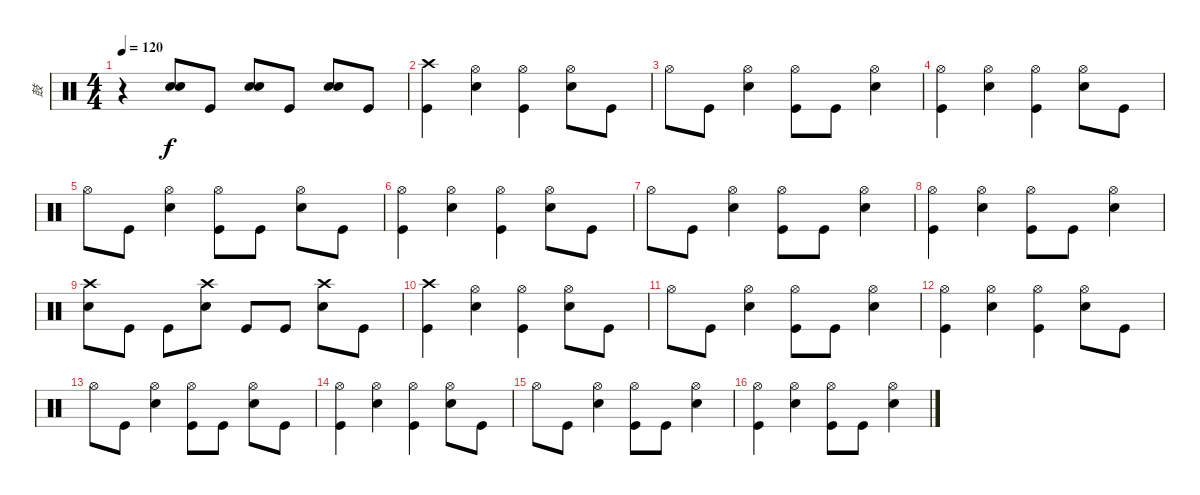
\track ("鼓" "鼓") {instrument percussion}
\staff {score}
\articulation defaults
\ts (4 4)
\tempo 120
\clef neutral
\ks c
r.4{dy f} ("Electric Snare (hit)" "Electric Snare (hit)").8 "Kick (hit)".8 ("Electric Snare (hit)" "Electric Snare (hit)").8 "Kick (hit)".8 ("Electric Snare (hit)" "Electric Snare (hit)").8 "Kick (hit)".8 |
("Crash high (hit)" "Kick (hit)").4 ("Hi-Hat (open)" "Electric Snare (hit)").4 ("Hi-Hat (open)" "Kick (hit)").4 ("Electric Snare (hit)" "Hi-Hat (open)").8 "Kick (hit)".8 |
"Hi-Hat (open)".8 "Kick (hit)".8 ("Hi-Hat (open)" "Electric Snare (hit)").4 ("Hi-Hat (open)" "Kick (hit)").8 "Kick (hit)".8 ("Electric Snare (hit)" "Hi-Hat (open)").4 |
("Hi-Hat (open)" "Kick (hit)").4 ("Hi-Hat (open)" "Electric Snare (hit)").4 ("Hi-Hat (open)" "Kick (hit)").4 ("Electric Snare (hit)" "Hi-Hat (open)").8 "Kick (hit)".8 |
"Hi-Hat (open)".8 "Kick (hit)".8 ("Hi-Hat (open)" "Electric Snare (hit)").4 ("Hi-Hat (open)" "Kick (hit)").8 "Kick (hit)".8 ("Electric Snare (hit)" "Hi-Hat (open)").8 "Kick (hit)".8 |
("Hi-Hat (open)" "Kick (hit)").4 ("Hi-Hat (open)" "Electric Snare (hit)").4 ("Hi-Hat (open)" "Kick (hit)").4 ("Electric Snare (hit)" "Hi-Hat (open)").8 "Kick (hit)".8 |
"Hi-Hat (open)".8 "Kick (hit)".8 ("Hi-Hat (open)" "Electric Snare (hit)").4 ("Hi-Hat (open)" "Kick (hit)").8 "Kick (hit)".8 ("Electric Snare (hit)" "Hi-Hat (open)").4 |
("Hi-Hat (open)" "Kick (hit)").4 ("Hi-Hat (open)" "Electric Snare (hit)").4 ("Hi-Hat (open)" "Kick (hit)").8 "Kick (hit)".8 ("Electric Snare (hit)" "Hi-Hat (open)").4 |
("Electric Snare (hit)" "Crash high (hit)").8 "Kick (hit)".8 "Kick (hit)".8 ("Electric Snare (hit)" "Crash high (hit)").8 "Kick (hit)".8 "Kick (hit)".8 ("Electric Snare (hit)" "Crash high (hit)").8 "Kick (hit)".8 |
("Crash high (hit)" "Kick (hit)").4 ("Hi-Hat (open)" "Electric Snare (hit)").4 ("Hi-Hat (open)" "Kick (hit)").4 ("Electric Snare (hit)" "Hi-Hat (open)").8 "Kick (hit)".8 |
"Hi-Hat (open)".8 "Kick (hit)".8 ("Hi-Hat (open)" "Electric Snare (hit)").4 ("Hi-Hat (open)" "Kick (hit)").8 "Kick (hit)".8 ("Electric Snare (hit)" "Hi-Hat (open)").4 |
("Hi-Hat (open)" "Kick (hit)").4 ("Hi-Hat (open)" "Electric Snare (hit)").4 ("Hi-Hat (open)" "Kick (hit)").4 ("Electric Snare (hit)" "Hi-Hat (open)").8 "Kick (hit)".8 |
"Hi-Hat (open)".8 "Kick (hit)".8 ("Hi-Hat (open)" "Electric Snare (hit)").4 ("Hi-Hat (open)" "Kick (hit)").8 "Kick (hit)".8 ("Electric Snare (hit)" "Hi-Hat (open)").8 "Kick (hit)".8 |
("Hi-Hat (open)" "Kick (hit)").4 ("Hi-Hat (open)" "Electric Snare (hit)").4 ("Hi-Hat (open)" "Kick (hit)").4 ("Electric Snare (hit)" "Hi-Hat (open)").8 "Kick (hit)".8 |
"Hi-Hat (open)".8 "Kick (hit)".8 ("Hi-Hat (open)" "Electric Snare (hit)").4 ("Hi-Hat (open)" "Kick (hit)").8 "Kick (hit)".8 ("Electric Snare (hit)" "Hi-Hat (open)").4 |
("Hi-Hat (open)" "Kick (hit)").4 ("Hi-Hat (open)" "Electric Snare (hit)").4 ("Hi-Hat (open)" "Kick (hit)").8 "Kick (hit)".8 ("Electric Snare (hit)" "Hi-Hat (open)").4
